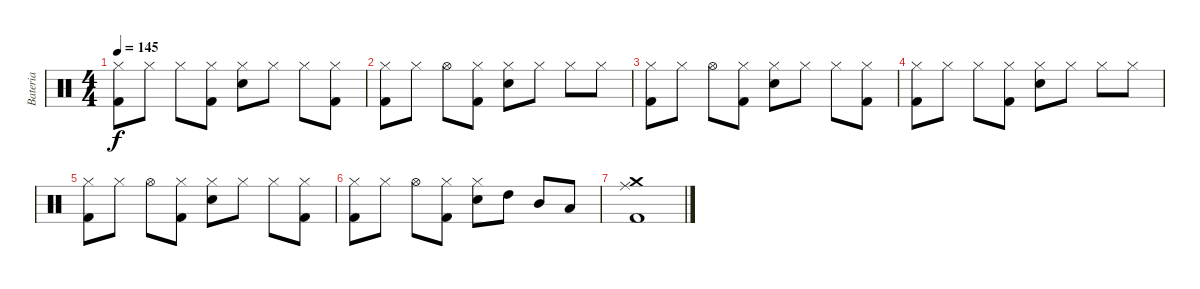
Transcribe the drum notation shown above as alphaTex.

\track ("Bateria" "Bateria") {instrument percussion}
\staff {score}
\articulation defaults
\ts (4 4)
\tempo 145
\clef neutral
\ks c
("Kick (hit) 2" "Hi-Hat (closed)").8{dy f} "Hi-Hat (closed)".8 "Hi-Hat (closed)".8 ("Kick (hit) 2" "Hi-Hat (closed)").8 ("Electric Snare (hit)" "Hi-Hat (closed)").8 "Hi-Hat (closed)".8 "Hi-Hat (closed)".8 ("Kick (hit) 2" "Hi-Hat (closed)").8 |
("Kick (hit) 2" "Hi-Hat (closed)").8 "Hi-Hat (closed)".8 "Hi-Hat (open)".8 ("Kick (hit) 2" "Hi-Hat (closed)").8 ("Electric Snare (hit)" "Hi-Hat (closed)").8 "Hi-Hat (closed)".8 "Hi-Hat (closed)".8 "Hi-Hat (closed)".8 |
("Kick (hit) 2" "Hi-Hat (closed)").8 "Hi-Hat (closed)".8 "Hi-Hat (open)".8 ("Kick (hit) 2" "Hi-Hat (closed)").8 ("Electric Snare (hit)" "Hi-Hat (closed)").8 "Hi-Hat (closed)".8 "Hi-Hat (closed)".8 ("Kick (hit) 2" "Hi-Hat (closed)").8 |
("Kick (hit) 2" "Hi-Hat (closed)").8 "Hi-Hat (closed)".8 "Hi-Hat (closed)".8 ("Kick (hit) 2" "Hi-Hat (closed)").8 ("Electric Snare (hit)" "Hi-Hat (closed)").8 "Hi-Hat (closed)".8 "Hi-Hat (closed)".8 "Hi-Hat (closed)".8 |
("Kick (hit) 2" "Hi-Hat (closed)").8 "Hi-Hat (closed)".8 "Hi-Hat (open)".8 ("Kick (hit) 2" "Hi-Hat (closed)").8 ("Electric Snare (hit)" "Hi-Hat (closed)").8 "Hi-Hat (closed)".8 "Hi-Hat (closed)".8 ("Kick (hit) 2" "Hi-Hat (closed)").8 |
("Kick (hit) 2" "Hi-Hat (closed)").8 "Hi-Hat (closed)".8 "Hi-Hat (open)".8 ("Kick (hit) 2" "Hi-Hat (closed)").8 ("Electric Snare (hit)" "Hi-Hat (closed)").8 "High Tom (hit)".8 "Mid Tom (hit)".8 "Low Tom (hit)".8 |
("Kick (hit) 2" "Crash medium (hit)" "Ride (middle)").1
